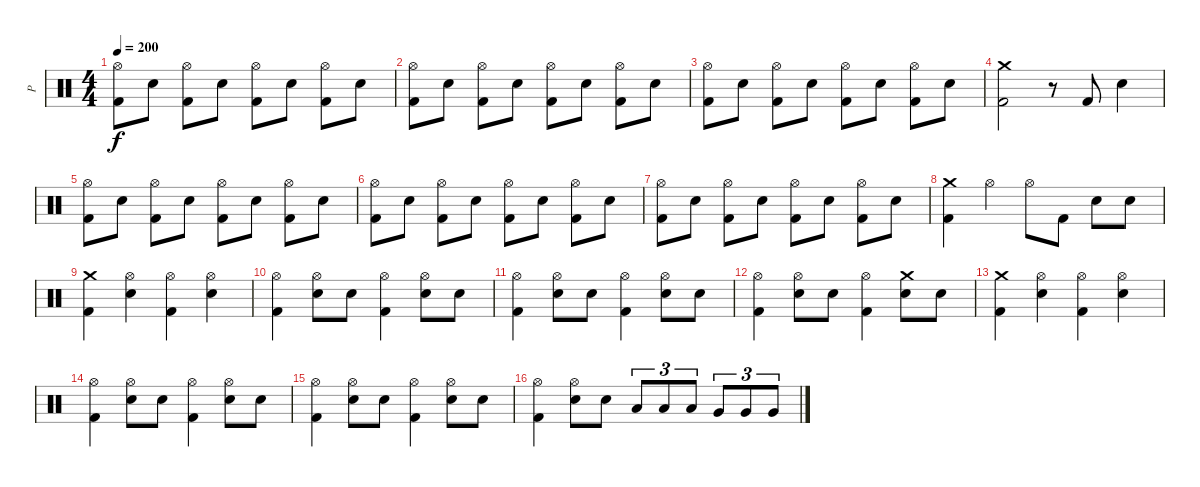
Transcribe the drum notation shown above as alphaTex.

\track ("P" "P") {instrument percussion}
\staff {score}
\articulation defaults
\ts (4 4)
\tempo 200
\clef neutral
\ks c
("Hi-Hat (open)" "Kick (hit) 2").8{dy f} "Electric Snare (hit)".8 ("Hi-Hat (open)" "Kick (hit) 2").8 "Electric Snare (hit)".8 ("Hi-Hat (open)" "Kick (hit) 2").8 "Electric Snare (hit)".8 ("Hi-Hat (open)" "Kick (hit) 2").8 "Electric Snare (hit)".8 |
("Hi-Hat (open)" "Kick (hit) 2").8 "Electric Snare (hit)".8 ("Hi-Hat (open)" "Kick (hit) 2").8 "Electric Snare (hit)".8 ("Hi-Hat (open)" "Kick (hit) 2").8 "Electric Snare (hit)".8 ("Hi-Hat (open)" "Kick (hit) 2").8 "Electric Snare (hit)".8 |
("Hi-Hat (open)" "Kick (hit) 2").8 "Electric Snare (hit)".8 ("Hi-Hat (open)" "Kick (hit) 2").8 "Electric Snare (hit)".8 ("Hi-Hat (open)" "Kick (hit) 2").8 "Electric Snare (hit)".8 ("Hi-Hat (open)" "Kick (hit) 2").8 "Electric Snare (hit)".8 |
("Crash medium (hit)" "Kick (hit) 2").2 r.8 "Kick (hit) 2".8 "Electric Snare (hit)".4 |
("Hi-Hat (open)" "Kick (hit) 2").8 "Electric Snare (hit)".8 ("Hi-Hat (open)" "Kick (hit) 2").8 "Electric Snare (hit)".8 ("Hi-Hat (open)" "Kick (hit) 2").8 "Electric Snare (hit)".8 ("Hi-Hat (open)" "Kick (hit) 2").8 "Electric Snare (hit)".8 |
("Hi-Hat (open)" "Kick (hit) 2").8 "Electric Snare (hit)".8 ("Hi-Hat (open)" "Kick (hit) 2").8 "Electric Snare (hit)".8 ("Hi-Hat (open)" "Kick (hit) 2").8 "Electric Snare (hit)".8 ("Hi-Hat (open)" "Kick (hit) 2").8 "Electric Snare (hit)".8 |
("Hi-Hat (open)" "Kick (hit) 2").8 "Electric Snare (hit)".8 ("Hi-Hat (open)" "Kick (hit) 2").8 "Electric Snare (hit)".8 ("Hi-Hat (open)" "Kick (hit) 2").8 "Electric Snare (hit)".8 ("Hi-Hat (open)" "Kick (hit) 2").8 "Electric Snare (hit)".8 |
("Crash medium (hit)" "Kick (hit) 2").4 "Hi-Hat (open)".4 "Hi-Hat (open)".8 "Kick (hit) 2".8 "Electric Snare (hit)".8 "Electric Snare (hit)".8 |
("Crash medium (hit)" "Kick (hit) 2").4 ("Hi-Hat (open)" "Electric Snare (hit)").4 ("Hi-Hat (open)" "Kick (hit) 2").4 ("Hi-Hat (open)" "Electric Snare (hit)").4 |
("Hi-Hat (open)" "Kick (hit) 2").4 ("Hi-Hat (open)" "Electric Snare (hit)").8 "Electric Snare (hit)".8 ("Hi-Hat (open)" "Kick (hit) 2").4 ("Hi-Hat (open)" "Electric Snare (hit)").8 "Electric Snare (hit)".8 |
("Hi-Hat (open)" "Kick (hit) 2").4 ("Hi-Hat (open)" "Electric Snare (hit)").8 "Electric Snare (hit)".8 ("Hi-Hat (open)" "Kick (hit) 2").4 ("Hi-Hat (open)" "Electric Snare (hit)").8 "Electric Snare (hit)".8 |
("Hi-Hat (open)" "Kick (hit) 2").4 ("Hi-Hat (open)" "Electric Snare (hit)").8 "Electric Snare (hit)".8 ("Hi-Hat (open)" "Kick (hit) 2").4 ("Crash medium (hit)" "Electric Snare (hit)").8 "Electric Snare (hit)".8 |
("Crash medium (hit)" "Kick (hit) 2").4 ("Hi-Hat (open)" "Electric Snare (hit)").4 ("Hi-Hat (open)" "Kick (hit) 2").4 ("Hi-Hat (open)" "Electric Snare (hit)").4 |
("Hi-Hat (open)" "Kick (hit) 2").4 ("Hi-Hat (open)" "Electric Snare (hit)").8 "Electric Snare (hit)".8 ("Hi-Hat (open)" "Kick (hit) 2").4 ("Hi-Hat (open)" "Electric Snare (hit)").8 "Electric Snare (hit)".8 |
("Hi-Hat (open)" "Kick (hit) 2").4 ("Hi-Hat (open)" "Electric Snare (hit)").8 "Electric Snare (hit)".8 ("Hi-Hat (open)" "Kick (hit) 2").4 ("Hi-Hat (open)" "Electric Snare (hit)").8 "Electric Snare (hit)".8 |
("Hi-Hat (open)" "Kick (hit) 2").4 ("Hi-Hat (open)" "Electric Snare (hit)").8 "Electric Snare (hit)".8 "Low Tom (hit)".8{tu (3 2)} "Low Tom (hit)".8{tu (3 2)} "Low Tom (hit)".8{tu (3 2)} "Very Low Tom (hit)".8{tu (3 2)} "Very Low Tom (hit)".8{tu (3 2)} "Very Low Tom (hit)".8{tu (3 2)}
